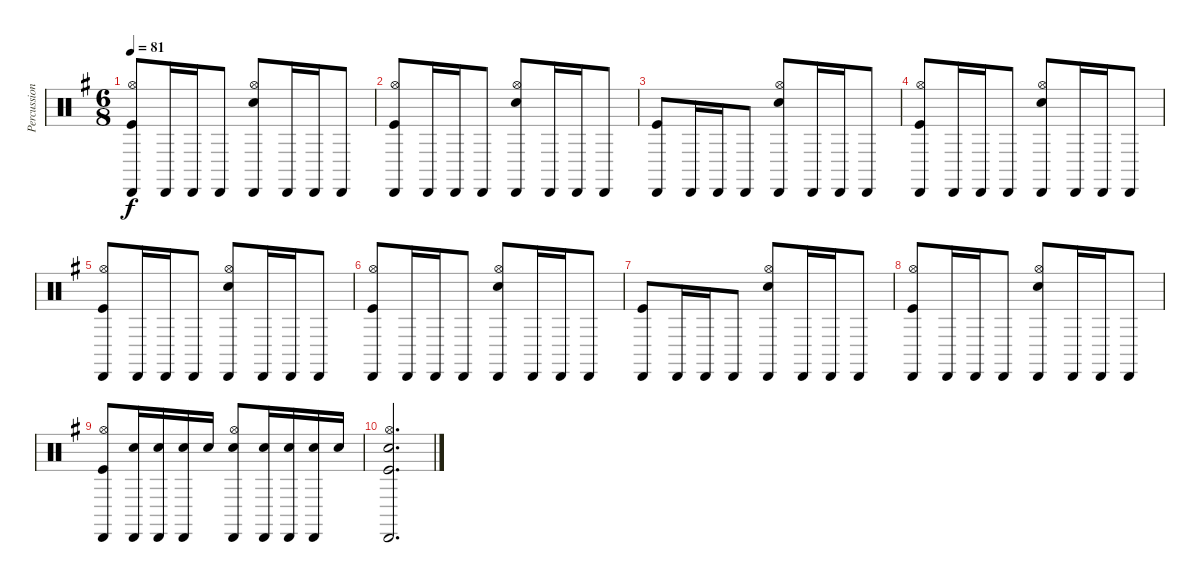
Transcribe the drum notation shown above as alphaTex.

\track ("Percussion" "Percussion") {instrument percussion}
\staff {score}
\articulation defaults
\ts (6 8)
\tempo 81
\clef neutral
\ks g
("Cabasa (hit)" "Hi-Hat (open)" "Kick (hit)").8{dy f} "Cabasa (hit)".16 "Cabasa (hit)".16 "Cabasa (hit)".8 ("Cabasa (hit)" "Hi-Hat (open)" "Snare (hit) 2").8 "Cabasa (hit)".16 "Cabasa (hit)".16 "Cabasa (hit)".8 |
("Cabasa (hit)" "Hi-Hat (open)" "Kick (hit)").8 "Cabasa (hit)".16 "Cabasa (hit)".16 "Cabasa (hit)".8 ("Cabasa (hit)" "Hi-Hat (open)" "Snare (hit) 2").8 "Cabasa (hit)".16 "Cabasa (hit)".16 "Cabasa (hit)".8 |
("Cabasa (hit)" "Kick (hit)").8 "Cabasa (hit)".16 "Cabasa (hit)".16 "Cabasa (hit)".8 ("Cabasa (hit)" "Hi-Hat (open)" "Snare (hit) 2").8 "Cabasa (hit)".16 "Cabasa (hit)".16 "Cabasa (hit)".8 |
("Cabasa (hit)" "Hi-Hat (open)" "Kick (hit)").8 "Cabasa (hit)".16 "Cabasa (hit)".16 "Cabasa (hit)".8 ("Cabasa (hit)" "Hi-Hat (open)" "Snare (hit) 2").8 "Cabasa (hit)".16 "Cabasa (hit)".16 "Cabasa (hit)".8 |
("Cabasa (hit)" "Hi-Hat (open)" "Kick (hit)").8 "Cabasa (hit)".16 "Cabasa (hit)".16 "Cabasa (hit)".8 ("Cabasa (hit)" "Hi-Hat (open)" "Snare (hit) 2").8 "Cabasa (hit)".16 "Cabasa (hit)".16 "Cabasa (hit)".8 |
("Cabasa (hit)" "Hi-Hat (open)" "Kick (hit)").8 "Cabasa (hit)".16 "Cabasa (hit)".16 "Cabasa (hit)".8 ("Cabasa (hit)" "Hi-Hat (open)" "Snare (hit) 2").8 "Cabasa (hit)".16 "Cabasa (hit)".16 "Cabasa (hit)".8 |
("Cabasa (hit)" "Kick (hit)").8 "Cabasa (hit)".16 "Cabasa (hit)".16 "Cabasa (hit)".8 ("Cabasa (hit)" "Hi-Hat (open)" "Snare (hit) 2").8 "Cabasa (hit)".16 "Cabasa (hit)".16 "Cabasa (hit)".8 |
("Cabasa (hit)" "Hi-Hat (open)" "Kick (hit)").8 "Cabasa (hit)".16 "Cabasa (hit)".16 "Cabasa (hit)".8 ("Cabasa (hit)" "Hi-Hat (open)" "Snare (hit) 2").8 "Cabasa (hit)".16 "Cabasa (hit)".16 "Cabasa (hit)".8 |
("Cabasa (hit)" "Hi-Hat (open)" "Kick (hit)").8 ("Cabasa (hit)" "Snare (hit) 2").16 ("Cabasa (hit)" "Snare (hit) 2").16 ("Cabasa (hit)" "Snare (hit) 2").16 "Snare (hit) 2".16 ("Cabasa (hit)" "Hi-Hat (open)" "Snare (hit) 2").8 ("Cabasa (hit)" "Snare (hit) 2").16 ("Cabasa (hit)" "Snare (hit) 2").16 ("Cabasa (hit)" "Snare (hit) 2").16 "Snare (hit) 2".16 |
("Cabasa (hit)" "Hi-Hat (open)" "Snare (hit) 2" "Kick (hit)").2{d}
